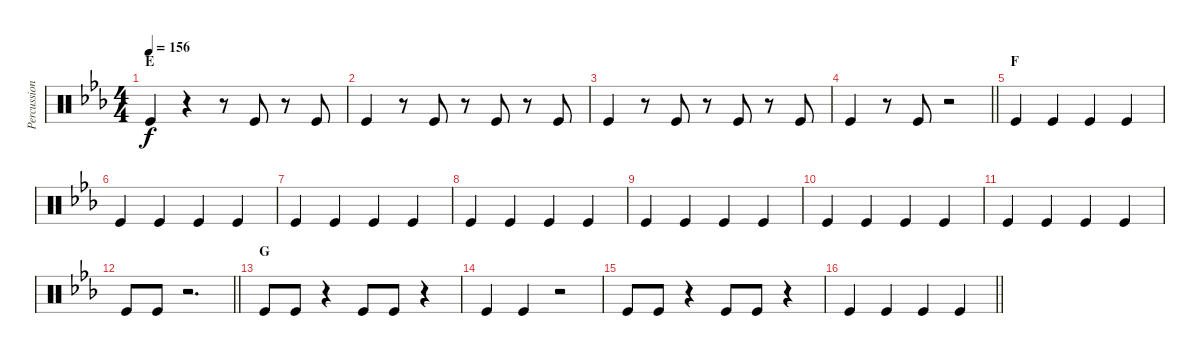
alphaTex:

\track ("Percussion foot" "Percussion") {instrument percussion}
\staff {score}
\articulation defaults
\ts (4 4)
\section ("" "E")
\tempo 156
\clef neutral
\ks eb "Kick (hit)".4{dy f}
r.4 r.8 "Kick (hit)".8 r.8 "Kick (hit)".8 |
"Kick (hit)".4 r.8 "Kick (hit)".8 r.8 "Kick (hit)".8 r.8 "Kick (hit)".8 |
"Kick (hit)".4 r.8 "Kick (hit)".8 r.8 "Kick (hit)".8 r.8 "Kick (hit)".8 |
\barLineRight lightlight "Kick (hit)".4
r.8 "Kick (hit)".8 r.2 |
\section ("" "F")
"Kick (hit)".4 "Kick (hit)".4 "Kick (hit)".4 "Kick (hit)".4 |
"Kick (hit)".4 "Kick (hit)".4 "Kick (hit)".4 "Kick (hit)".4 |
"Kick (hit)".4 "Kick (hit)".4 "Kick (hit)".4 "Kick (hit)".4 |
"Kick (hit)".4 "Kick (hit)".4 "Kick (hit)".4 "Kick (hit)".4 |
"Kick (hit)".4 "Kick (hit)".4 "Kick (hit)".4 "Kick (hit)".4 |
"Kick (hit)".4 "Kick (hit)".4 "Kick (hit)".4 "Kick (hit)".4 |
"Kick (hit)".4 "Kick (hit)".4 "Kick (hit)".4 "Kick (hit)".4 |
\barLineRight lightlight "Kick (hit)".8 "Kick (hit)".8
r.2{d} |
\section ("" "G")
"Kick (hit)".8 "Kick (hit)".8 r.4 "Kick (hit)".8 "Kick (hit)".8 r.4 |
"Kick (hit)".4 "Kick (hit)".4 r.2 |
"Kick (hit)".8 "Kick (hit)".8 r.4 "Kick (hit)".8 "Kick (hit)".8 r.4 |
\barLineRight lightlight "Kick (hit)".4 "Kick (hit)".4 "Kick (hit)".4 "Kick (hit)".4
